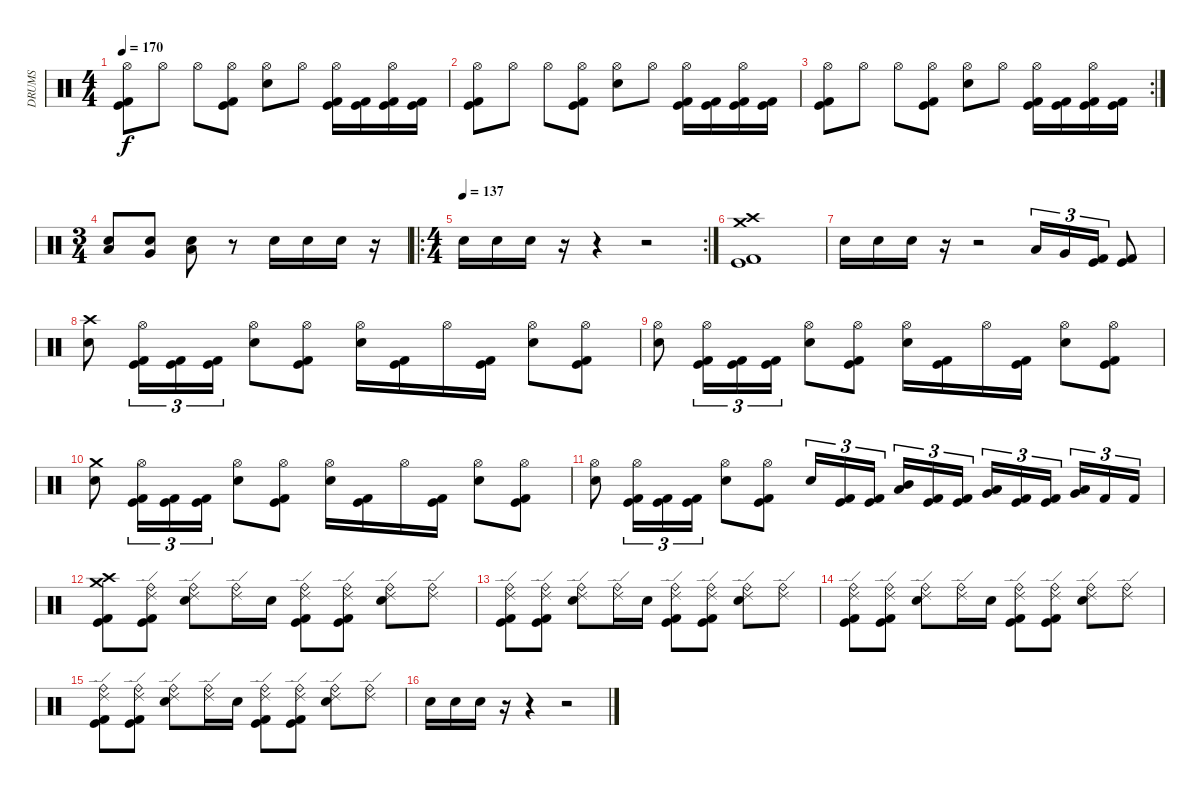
\track ("DRUMS" "DRUMS") {instrument percussion}
\staff {score}
\articulation defaults
\ts (4 4)
\tempo 170
\clef neutral
\ks c
("Hi-Hat (open)" "Kick (hit)" "Kick (hit) 2").8{dy f} "Hi-Hat (open)".8 "Hi-Hat (open)".8 ("Hi-Hat (open)" "Kick (hit)" "Kick (hit) 2").8 ("Hi-Hat (open)" "Snare (hit) 2").8 "Hi-Hat (open)".8 ("Hi-Hat (open)" "Kick (hit)" "Kick (hit) 2").16 ("Kick (hit)" "Kick (hit) 2").16 ("Hi-Hat (open)" "Kick (hit)" "Kick (hit) 2").16 ("Kick (hit)" "Kick (hit) 2").16 |
("Hi-Hat (open)" "Kick (hit)" "Kick (hit) 2").8 "Hi-Hat (open)".8 "Hi-Hat (open)".8 ("Hi-Hat (open)" "Kick (hit)" "Kick (hit) 2").8 ("Hi-Hat (open)" "Snare (hit) 2").8 "Hi-Hat (open)".8 ("Hi-Hat (open)" "Kick (hit)" "Kick (hit) 2").16 ("Kick (hit)" "Kick (hit) 2").16 ("Hi-Hat (open)" "Kick (hit)" "Kick (hit) 2").16 ("Kick (hit)" "Kick (hit) 2").16 |
\rc 2
("Hi-Hat (open)" "Kick (hit)" "Kick (hit) 2").8 "Hi-Hat (open)".8 "Hi-Hat (open)".8 ("Hi-Hat (open)" "Kick (hit)" "Kick (hit) 2").8 ("Hi-Hat (open)" "Snare (hit) 2").8 "Hi-Hat (open)".8 ("Hi-Hat (open)" "Kick (hit)" "Kick (hit) 2").16 ("Kick (hit)" "Kick (hit) 2").16 ("Hi-Hat (open)" "Kick (hit)" "Kick (hit) 2").16 ("Kick (hit)" "Kick (hit) 2").16 |
\ts (3 4)
("Snare (hit) 2" "Low Tom (hit)").8 ("Snare (hit) 2" "Very Low Tom (hit)").8 ("Snare (hit) 2" "Low Tom (hit)").8 r.8 "Snare (hit) 2".16 "Snare (hit) 2".16 "Snare (hit) 2".16 r.16 |
\ro
\rc 2
\ts (4 4)
\tempo (137)
"Snare (hit) 2".16 "Snare (hit) 2".16 "Snare (hit) 2".16 r.16 r.4 r.2 |
("Crash medium (hit)" "Crash high (hit)" "Kick (hit)" "Kick (hit) 2").1 |
"Snare (hit) 2".16 "Snare (hit) 2".16 "Snare (hit) 2".16 r.16 r.2 "Low Tom (hit)".16{tu (3 2)} "Very Low Tom (hit)".16{tu (3 2)} ("Kick (hit)" "Kick (hit) 2").16{tu (3 2)} ("Kick (hit)" "Kick (hit) 2").8 |
("Crash high (hit)" "Snare (hit) 2").8 ("Hi-Hat (open)" "Kick (hit)" "Kick (hit) 2").16{tu (3 2)} ("Kick (hit)" "Kick (hit) 2").16{tu (3 2)} ("Kick (hit)" "Kick (hit) 2").16{tu (3 2)} ("Hi-Hat (open)" "Snare (hit) 2").8 ("Hi-Hat (open)" "Kick (hit)" "Kick (hit) 2").8 ("Hi-Hat (open)" "Snare (hit) 2").16 ("Kick (hit)" "Kick (hit) 2").16 "Hi-Hat (open)".16 ("Kick (hit)" "Kick (hit) 2").16 ("Hi-Hat (open)" "Snare (hit) 2").8 ("Hi-Hat (open)" "Kick (hit)" "Kick (hit) 2").8 |
("Hi-Hat (open)" "Snare (hit) 2").8 ("Hi-Hat (open)" "Kick (hit)" "Kick (hit) 2").16{tu (3 2)} ("Kick (hit)" "Kick (hit) 2").16{tu (3 2)} ("Kick (hit)" "Kick (hit) 2").16{tu (3 2)} ("Hi-Hat (open)" "Snare (hit) 2").8 ("Hi-Hat (open)" "Kick (hit)" "Kick (hit) 2").8 ("Hi-Hat (open)" "Snare (hit) 2").16 ("Kick (hit)" "Kick (hit) 2").16 "Hi-Hat (open)".16 ("Kick (hit)" "Kick (hit) 2").16 ("Hi-Hat (open)" "Snare (hit) 2").8 ("Hi-Hat (open)" "Kick (hit)" "Kick (hit) 2").8 |
("Crash medium (hit)" "Snare (hit) 2").8 ("Hi-Hat (open)" "Kick (hit)" "Kick (hit) 2").16{tu (3 2)} ("Kick (hit)" "Kick (hit) 2").16{tu (3 2)} ("Kick (hit)" "Kick (hit) 2").16{tu (3 2)} ("Hi-Hat (open)" "Snare (hit) 2").8 ("Hi-Hat (open)" "Kick (hit)" "Kick (hit) 2").8 ("Hi-Hat (open)" "Snare (hit) 2").16 ("Kick (hit)" "Kick (hit) 2").16 "Hi-Hat (open)".16 ("Kick (hit)" "Kick (hit) 2").16 ("Hi-Hat (open)" "Snare (hit) 2").8 ("Hi-Hat (open)" "Kick (hit)" "Kick (hit) 2").8 |
("Hi-Hat (open)" "Snare (hit) 2").8 ("Hi-Hat (open)" "Kick (hit)" "Kick (hit) 2").16{tu (3 2)} ("Kick (hit)" "Kick (hit) 2").16{tu (3 2)} ("Kick (hit)" "Kick (hit) 2").16{tu (3 2)} ("Hi-Hat (open)" "Snare (hit) 2").8 ("Hi-Hat (open)" "Kick (hit)" "Kick (hit) 2").8 "Snare (hit) 2".16{tu (3 2)} ("Kick (hit)" "Kick (hit) 2").16{tu (3 2)} ("Kick (hit)" "Kick (hit) 2").16{tu (3 2)} ("Mid Tom (hit)" "Low Tom (hit)").16{tu (3 2)} ("Kick (hit)" "Kick (hit) 2").16{tu (3 2)} ("Kick (hit)" "Kick (hit) 2").16{tu (3 2)} ("Low Tom (hit)" "Very Low Tom (hit)").16{tu (3 2)} ("Kick (hit)" "Kick (hit) 2").16{tu (3 2)} ("Kick (hit)" "Kick (hit) 2").16{tu (3 2)} ("Very Low Tom (hit)" "Low Floor Tom (hit)").16{tu (3 2)} "Kick (hit) 2".16{tu (3 2)} "Kick (hit) 2".16{tu (3 2)} |
("Crash medium (hit)" "Crash high (hit)" "Kick (hit)" "Kick (hit) 2").8 ("Ride (edge) 2" "Ride (bell)" "Kick (hit)" "Kick (hit) 2").8 ("Ride (edge) 2" "Ride (bell)" "Snare (hit) 2").8 ("Ride (edge) 2" "Ride (bell)").16 "Snare (hit) 2".16 ("Ride (edge) 2" "Ride (bell)" "Kick (hit)" "Kick (hit) 2").8 ("Ride (edge) 2" "Ride (bell)" "Kick (hit)" "Kick (hit) 2").8 ("Ride (edge) 2" "Ride (bell)" "Snare (hit) 2").8 ("Ride (edge) 2" "Ride (bell)").8 |
("Ride (edge) 2" "Ride (bell)" "Kick (hit)" "Kick (hit) 2").8 ("Ride (edge) 2" "Ride (bell)" "Kick (hit)" "Kick (hit) 2").8 ("Ride (edge) 2" "Ride (bell)" "Snare (hit) 2").8 ("Ride (edge) 2" "Ride (bell)").16 "Snare (hit) 2".16 ("Ride (edge) 2" "Ride (bell)" "Kick (hit)" "Kick (hit) 2").8 ("Ride (edge) 2" "Ride (bell)" "Kick (hit)" "Kick (hit) 2").8 ("Ride (edge) 2" "Ride (bell)" "Snare (hit) 2").8 ("Ride (edge) 2" "Ride (bell)").8 |
("Ride (edge) 2" "Ride (bell)" "Kick (hit)" "Kick (hit) 2").8 ("Ride (edge) 2" "Ride (bell)" "Kick (hit)" "Kick (hit) 2").8 ("Ride (edge) 2" "Ride (bell)" "Snare (hit) 2").8 ("Ride (edge) 2" "Ride (bell)").16 "Snare (hit) 2".16 ("Ride (edge) 2" "Ride (bell)" "Kick (hit)" "Kick (hit) 2").8 ("Ride (edge) 2" "Ride (bell)" "Kick (hit)" "Kick (hit) 2").8 ("Ride (edge) 2" "Ride (bell)" "Snare (hit) 2").8 ("Ride (edge) 2" "Ride (bell)").8 |
("Ride (edge) 2" "Ride (bell)" "Kick (hit)" "Kick (hit) 2").8 ("Ride (edge) 2" "Ride (bell)" "Kick (hit)" "Kick (hit) 2").8 ("Ride (edge) 2" "Ride (bell)" "Snare (hit) 2").8 ("Ride (edge) 2" "Ride (bell)").16 "Snare (hit) 2".16 ("Ride (edge) 2" "Ride (bell)" "Kick (hit)" "Kick (hit) 2").8 ("Ride (edge) 2" "Ride (bell)" "Kick (hit)" "Kick (hit) 2").8 ("Ride (edge) 2" "Ride (bell)" "Snare (hit) 2").8 ("Ride (edge) 2" "Ride (bell)").8 |
"Snare (hit) 2".16 "Snare (hit) 2".16 "Snare (hit) 2".16 r.16 r.4 r.2
